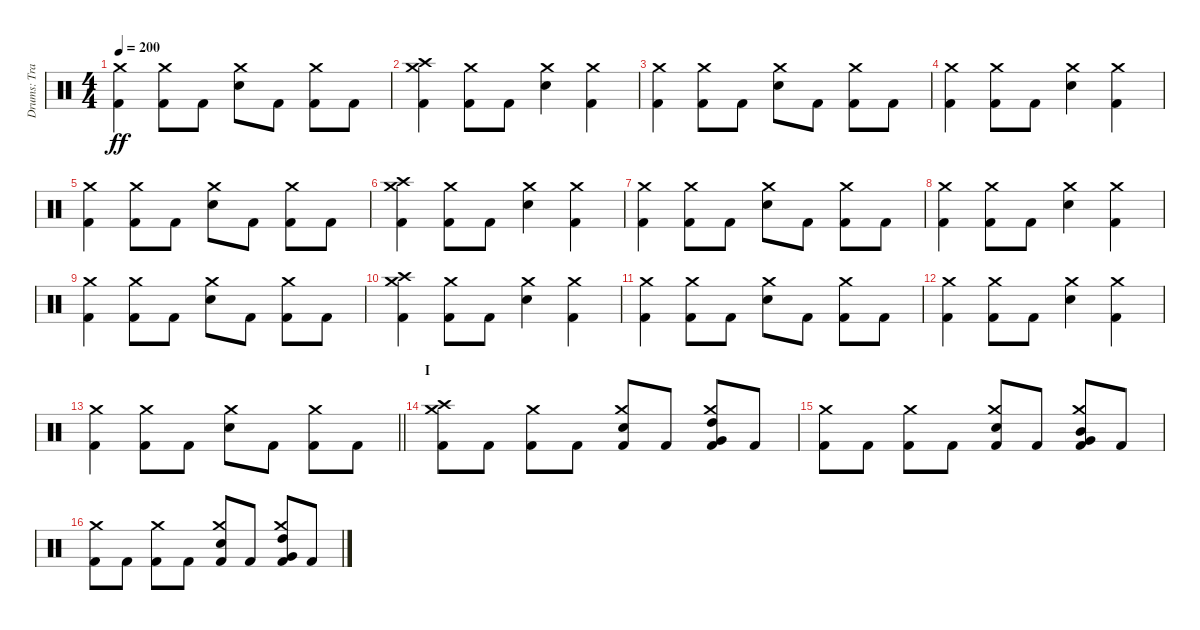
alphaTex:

\track ("Drums: Travis Clarke" "Drums: Tra") {instrument percussion}
\staff {score}
\articulation defaults
\ts (4 4)
\tempo 200
\clef neutral
\ks c
("Kick (hit) 2" "Crash medium (hit)").4{dy ff} ("Kick (hit) 2" "Crash medium (hit)").8 "Kick (hit) 2".8 ("Snare (hit) 2" "Crash medium (hit)").8 "Kick (hit) 2".8 ("Kick (hit) 2" "Crash medium (hit)").8 "Kick (hit) 2".8 |
("Kick (hit) 2" "Crash high (hit)" "Crash medium (hit)").4 ("Kick (hit) 2" "Crash medium (hit)").8 "Kick (hit) 2".8 ("Snare (hit) 2" "Crash medium (hit)").4 ("Kick (hit) 2" "Crash medium (hit)").4 |
("Kick (hit) 2" "Crash medium (hit)").4 ("Kick (hit) 2" "Crash medium (hit)").8 "Kick (hit) 2".8 ("Snare (hit) 2" "Crash medium (hit)").8 "Kick (hit) 2".8 ("Kick (hit) 2" "Crash medium (hit)").8 "Kick (hit) 2".8 |
("Kick (hit) 2" "Crash medium (hit)").4 ("Kick (hit) 2" "Crash medium (hit)").8 "Kick (hit) 2".8 ("Snare (hit) 2" "Crash medium (hit)").4 ("Kick (hit) 2" "Crash medium (hit)").4 |
("Kick (hit) 2" "Crash medium (hit)").4 ("Kick (hit) 2" "Crash medium (hit)").8 "Kick (hit) 2".8 ("Snare (hit) 2" "Crash medium (hit)").8 "Kick (hit) 2".8 ("Kick (hit) 2" "Crash medium (hit)").8 "Kick (hit) 2".8 |
("Kick (hit) 2" "Crash high (hit)" "Crash medium (hit)").4 ("Kick (hit) 2" "Crash medium (hit)").8 "Kick (hit) 2".8 ("Snare (hit) 2" "Crash medium (hit)").4 ("Kick (hit) 2" "Crash medium (hit)").4 |
("Kick (hit) 2" "Crash medium (hit)").4 ("Kick (hit) 2" "Crash medium (hit)").8 "Kick (hit) 2".8 ("Snare (hit) 2" "Crash medium (hit)").8 "Kick (hit) 2".8 ("Kick (hit) 2" "Crash medium (hit)").8 "Kick (hit) 2".8 |
("Kick (hit) 2" "Crash medium (hit)").4 ("Kick (hit) 2" "Crash medium (hit)").8 "Kick (hit) 2".8 ("Snare (hit) 2" "Crash medium (hit)").4 ("Kick (hit) 2" "Crash medium (hit)").4 |
("Kick (hit) 2" "Crash medium (hit)").4 ("Kick (hit) 2" "Crash medium (hit)").8 "Kick (hit) 2".8 ("Snare (hit) 2" "Crash medium (hit)").8 "Kick (hit) 2".8 ("Kick (hit) 2" "Crash medium (hit)").8 "Kick (hit) 2".8 |
("Kick (hit) 2" "Crash high (hit)" "Crash medium (hit)").4 ("Kick (hit) 2" "Crash medium (hit)").8 "Kick (hit) 2".8 ("Snare (hit) 2" "Crash medium (hit)").4 ("Kick (hit) 2" "Crash medium (hit)").4 |
("Kick (hit) 2" "Crash medium (hit)").4 ("Kick (hit) 2" "Crash medium (hit)").8 "Kick (hit) 2".8 ("Snare (hit) 2" "Crash medium (hit)").8 "Kick (hit) 2".8 ("Kick (hit) 2" "Crash medium (hit)").8 "Kick (hit) 2".8 |
("Kick (hit) 2" "Crash medium (hit)").4 ("Kick (hit) 2" "Crash medium (hit)").8 "Kick (hit) 2".8 ("Snare (hit) 2" "Crash medium (hit)").4 ("Kick (hit) 2" "Crash medium (hit)").4 |
\barLineRight lightlight
("Kick (hit) 2" "Crash medium (hit)").4 ("Kick (hit) 2" "Crash medium (hit)").8 "Kick (hit) 2".8 ("Snare (hit) 2" "Crash medium (hit)").8 "Kick (hit) 2".8 ("Kick (hit) 2" "Crash medium (hit)").8 "Kick (hit) 2".8 |
\section ("" "I")
("Kick (hit) 2" "Crash high (hit)" "Crash medium (hit)").8 "Kick (hit) 2".8 ("Kick (hit) 2" "Crash medium (hit)").8 "Kick (hit) 2".8 ("Kick (hit) 2" "Snare (hit) 2" "Crash medium (hit)").8 "Kick (hit) 2".8 ("Kick (hit) 2" "Very Low Tom (hit)" "High Tom (hit)" "Crash medium (hit)").8 "Kick (hit) 2".8 |
("Kick (hit) 2" "Crash medium (hit)").8 "Kick (hit) 2".8 ("Kick (hit) 2" "Crash medium (hit)").8 "Kick (hit) 2".8 ("Kick (hit) 2" "Snare (hit) 2" "Crash medium (hit)").8 "Kick (hit) 2".8 ("Kick (hit) 2" "Very Low Tom (hit)" "Mid Tom (hit)" "Crash medium (hit)").8 "Kick (hit) 2".8 |
("Kick (hit) 2" "Crash medium (hit)").8 "Kick (hit) 2".8 ("Kick (hit) 2" "Crash medium (hit)").8 "Kick (hit) 2".8 ("Kick (hit) 2" "Snare (hit) 2" "Crash medium (hit)").8 "Kick (hit) 2".8 ("Kick (hit) 2" "Very Low Tom (hit)" "High Tom (hit)" "Crash medium (hit)").8 "Kick (hit) 2".8
